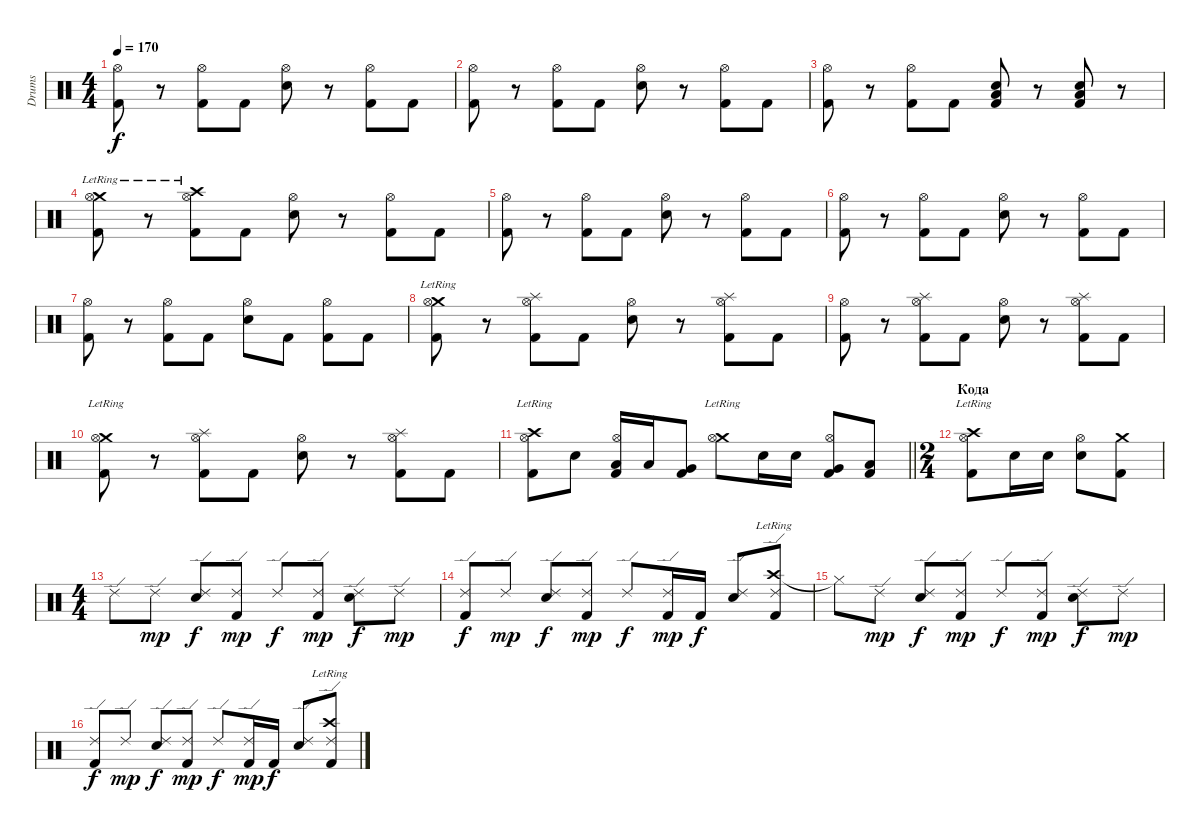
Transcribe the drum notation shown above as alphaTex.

\track ("Drums" "Drums") {instrument percussion}
\staff {score}
\articulation defaults
\ts (4 4)
\tempo 170
\clef neutral
\ks c
("Kick (hit) 2" "Hi-Hat (open)").8{dy f} r.8 ("Kick (hit) 2" "Hi-Hat (open)").8 "Kick (hit) 2".8 ("Electric Snare (hit)" "Hi-Hat (open)").8 r.8 ("Kick (hit) 2" "Hi-Hat (open)").8 "Kick (hit) 2".8 |
("Kick (hit) 2" "Hi-Hat (open)").8 r.8 ("Kick (hit) 2" "Hi-Hat (open)").8 "Kick (hit) 2".8 ("Electric Snare (hit)" "Hi-Hat (open)").8 r.8 ("Kick (hit) 2" "Hi-Hat (open)").8 "Kick (hit) 2".8 |
("Kick (hit) 2" "Hi-Hat (open)").8 r.8 ("Kick (hit) 2" "Hi-Hat (open)").8 "Kick (hit) 2".8 ("Electric Snare (hit)" "Kick (hit) 2" "Low Floor Tom (hit)").8 r.8 ("Electric Snare (hit)" "Kick (hit) 2" "Low Floor Tom (hit)").8 r.8 |
("Crash medium (hit)"{lr} "Kick (hit) 2" "Hi-Hat (open)").8 r.8 ("Crash high (hit)"{lr} "Kick (hit) 2" "Hi-Hat (open)").8 "Kick (hit) 2".8 ("Electric Snare (hit)" "Hi-Hat (open)").8 r.8 ("Kick (hit) 2" "Hi-Hat (open)").8 "Kick (hit) 2".8 |
("Kick (hit) 2" "Hi-Hat (open)").8 r.8 ("Kick (hit) 2" "Hi-Hat (open)").8 "Kick (hit) 2".8 ("Electric Snare (hit)" "Hi-Hat (open)").8 r.8 ("Kick (hit) 2" "Hi-Hat (open)").8 "Kick (hit) 2".8 |
("Kick (hit) 2" "Hi-Hat (open)").8 r.8 ("Kick (hit) 2" "Hi-Hat (open)").8 "Kick (hit) 2".8 ("Electric Snare (hit)" "Hi-Hat (open)").8 r.8 ("Kick (hit) 2" "Hi-Hat (open)").8 "Kick (hit) 2".8 |
("Kick (hit) 2" "Hi-Hat (open)").8 r.8 ("Kick (hit) 2" "Hi-Hat (open)").8 "Kick (hit) 2".8 ("Electric Snare (hit)" "Hi-Hat (open)").8 "Kick (hit) 2".8 ("Kick (hit) 2" "Hi-Hat (open)").8 "Kick (hit) 2".8 |
("Crash medium (hit)"{lr} "Kick (hit) 2" "Hi-Hat (open)").8 r.8 ("Splash (hit)" "Kick (hit) 2" "Hi-Hat (open)").8 "Kick (hit) 2".8 ("Electric Snare (hit)" "Hi-Hat (open)").8 r.8 ("Splash (hit)" "Kick (hit) 2" "Hi-Hat (open)").8 "Kick (hit) 2".8 |
("Kick (hit) 2" "Hi-Hat (open)").8 r.8 ("Splash (hit)" "Kick (hit) 2" "Hi-Hat (open)").8 "Kick (hit) 2".8 ("Electric Snare (hit)" "Hi-Hat (open)").8 r.8 ("Splash (hit)" "Kick (hit) 2" "Hi-Hat (open)").8 "Kick (hit) 2".8 |
("Crash medium (hit)"{lr} "Kick (hit) 2" "Hi-Hat (open)").8 r.8 ("Splash (hit)" "Kick (hit) 2" "Hi-Hat (open)").8 "Kick (hit) 2".8 ("Electric Snare (hit)" "Hi-Hat (open)").8 r.8 ("Splash (hit)" "Kick (hit) 2" "Hi-Hat (open)").8 "Kick (hit) 2".8 |
\barLineRight lightlight
("Crash high (hit)"{lr} "Kick (hit) 2" "Hi-Hat (open)").8 "Electric Snare (hit)".8 ("Low Tom (hit)" "Kick (hit) 2" "Hi-Hat (open)").16 "Low Tom (hit)".16 ("Very Low Tom (hit)" "Kick (hit) 2").8 ("Crash medium (hit)"{lr} "Hi-Hat (open)").8 "Electric Snare (hit)".16 "Electric Snare (hit)".16 ("Very Low Tom (hit)" "Kick (hit) 2" "Hi-Hat (open)").8 ("Low Floor Tom (hit)" "Kick (hit) 2").8 |
\ts (2 4)
\section ("" "Кода")
("Crash high (hit)"{lr} "Kick (hit) 2" "Hi-Hat (open)").8 "Electric Snare (hit)".16 "Electric Snare (hit)".16 ("Electric Snare (hit)" "Hi-Hat (open)").8 ("Crash medium (hit)" "Kick (hit) 2").8 |
\ts (4 4)
"Ride (edge) 2".8 "Ride (edge) 2".8{dy mp} ("Electric Snare (hit)" "Ride (edge) 2").8{dy f} ("Kick (hit) 2" "Ride (edge) 2").8{dy mp} "Ride (edge) 2".8{dy f} ("Kick (hit) 2" "Ride (edge) 2").8{dy mp} ("Electric Snare (hit)" "Ride (edge) 2").8{dy f} "Ride (edge) 2".8{dy mp} |
("Kick (hit) 2" "Ride (edge) 2").8{dy f} "Ride (edge) 2".8{dy mp} ("Electric Snare (hit)" "Ride (edge) 2").8{dy f} ("Kick (hit) 2" "Ride (edge) 2").8{dy mp} "Ride (edge) 2".8{dy f} ("Kick (hit) 2" "Ride (edge) 2").16{dy mp} "Kick (hit) 2".16{dy f} ("Electric Snare (hit)" "Ride (edge) 2").8 ("Crash high (hit)"{lr} "Kick (hit) 2" "Ride (edge) 2").8 |
"Hi-Hat (closed)"{t}.8 "Ride (edge) 2".8{dy mp} ("Electric Snare (hit)" "Ride (edge) 2").8{dy f} ("Kick (hit) 2" "Ride (edge) 2").8{dy mp} "Ride (edge) 2".8{dy f} ("Kick (hit) 2" "Ride (edge) 2").8{dy mp} ("Electric Snare (hit)" "Ride (edge) 2").8{dy f} "Ride (edge) 2".8{dy mp} |
("Kick (hit) 2" "Ride (edge) 2").8{dy f} "Ride (edge) 2".8{dy mp} ("Electric Snare (hit)" "Ride (edge) 2").8{dy f} ("Kick (hit) 2" "Ride (edge) 2").8{dy mp} "Ride (edge) 2".8{dy f} ("Kick (hit) 2" "Ride (edge) 2").16{dy mp} "Kick (hit) 2".16{dy f} ("Electric Snare (hit)" "Ride (edge) 2").8 ("Crash high (hit)"{lr} "Kick (hit) 2" "Ride (edge) 2").8
